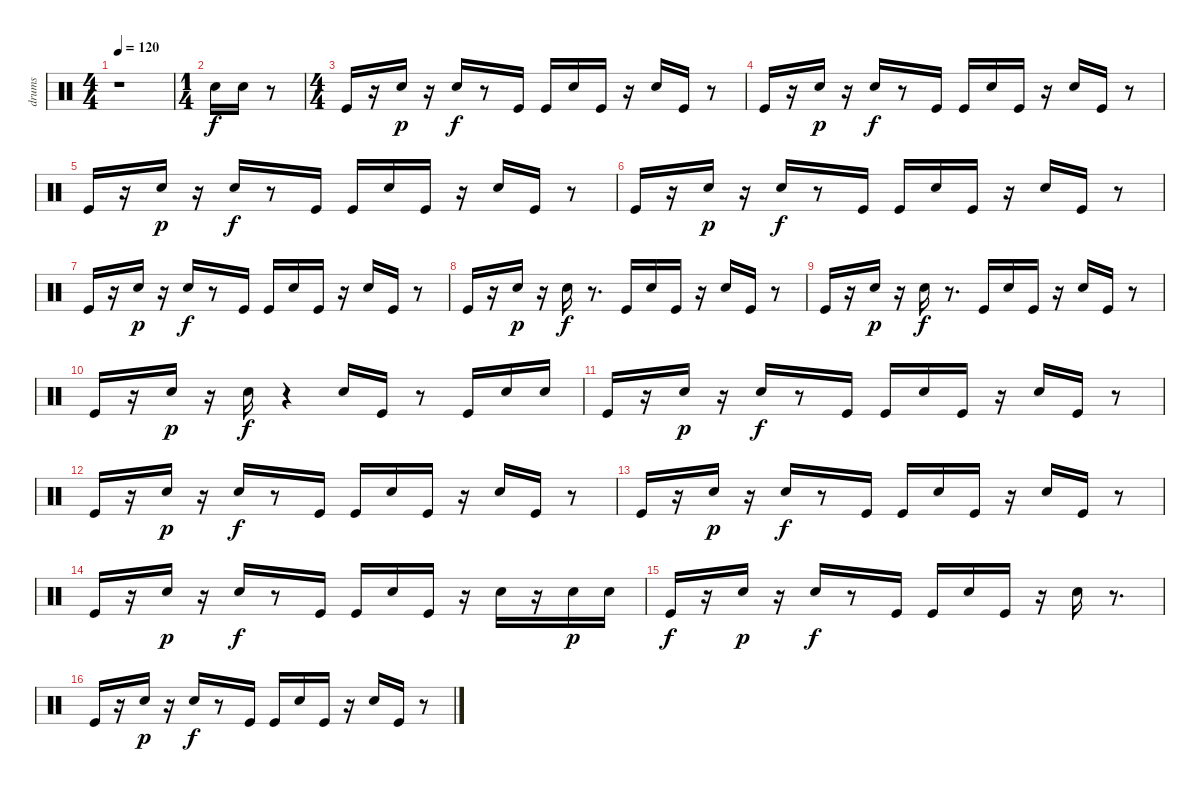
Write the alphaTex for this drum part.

\track ("drums" "drums") {instrument percussion}
\staff {score}
\articulation defaults
\ts (4 4)
\tempo 120
\clef neutral
\ks c
r.1{dy f} |
\ts (1 4)
"Electric Snare (hit)".16 "Electric Snare (hit)".16 r.8 |
\ts (4 4)
"Kick (hit)".16 r.16 "Electric Snare (hit)".16{dy p} r.16 "Electric Snare (hit)".16{dy f} r.8 "Kick (hit)".16 "Kick (hit)".16 "Electric Snare (hit)".16 "Kick (hit)".16 r.16 "Electric Snare (hit)".16 "Kick (hit)".16 r.8 |
"Kick (hit)".16 r.16 "Electric Snare (hit)".16{dy p} r.16 "Electric Snare (hit)".16{dy f} r.8 "Kick (hit)".16 "Kick (hit)".16 "Electric Snare (hit)".16 "Kick (hit)".16 r.16 "Electric Snare (hit)".16 "Kick (hit)".16 r.8 |
"Kick (hit)".16 r.16 "Electric Snare (hit)".16{dy p} r.16 "Electric Snare (hit)".16{dy f} r.8 "Kick (hit)".16 "Kick (hit)".16 "Electric Snare (hit)".16 "Kick (hit)".16 r.16 "Electric Snare (hit)".16 "Kick (hit)".16 r.8 |
"Kick (hit)".16 r.16 "Electric Snare (hit)".16{dy p} r.16 "Electric Snare (hit)".16{dy f} r.8 "Kick (hit)".16 "Kick (hit)".16 "Electric Snare (hit)".16 "Kick (hit)".16 r.16 "Electric Snare (hit)".16 "Kick (hit)".16 r.8 |
"Kick (hit)".16 r.16 "Electric Snare (hit)".16{dy p} r.16 "Electric Snare (hit)".16{dy f} r.8 "Kick (hit)".16 "Kick (hit)".16 "Electric Snare (hit)".16 "Kick (hit)".16 r.16 "Electric Snare (hit)".16 "Kick (hit)".16 r.8 |
"Kick (hit)".16 r.16 "Electric Snare (hit)".16{dy p} r.16 "Electric Snare (hit)".16{dy f} r.8{d} "Kick (hit)".16 "Electric Snare (hit)".16 "Kick (hit)".16 r.16 "Electric Snare (hit)".16 "Kick (hit)".16 r.8 |
"Kick (hit)".16 r.16 "Electric Snare (hit)".16{dy p} r.16 "Electric Snare (hit)".16{dy f} r.8{d} "Kick (hit)".16 "Electric Snare (hit)".16 "Kick (hit)".16 r.16 "Electric Snare (hit)".16 "Kick (hit)".16 r.8 |
"Kick (hit)".16 r.16 "Electric Snare (hit)".16{dy p} r.16 "Electric Snare (hit)".16{dy f} r.4 "Electric Snare (hit)".16 "Kick (hit)".16 r.8 "Kick (hit)".16 "Electric Snare (hit)".16 "Electric Snare (hit)".16 |
"Kick (hit)".16 r.16 "Electric Snare (hit)".16{dy p} r.16 "Electric Snare (hit)".16{dy f} r.8 "Kick (hit)".16 "Kick (hit)".16 "Electric Snare (hit)".16 "Kick (hit)".16 r.16 "Electric Snare (hit)".16 "Kick (hit)".16 r.8 |
"Kick (hit)".16 r.16 "Electric Snare (hit)".16{dy p} r.16 "Electric Snare (hit)".16{dy f} r.8 "Kick (hit)".16 "Kick (hit)".16 "Electric Snare (hit)".16 "Kick (hit)".16 r.16 "Electric Snare (hit)".16 "Kick (hit)".16 r.8 |
"Kick (hit)".16 r.16 "Electric Snare (hit)".16{dy p} r.16 "Electric Snare (hit)".16{dy f} r.8 "Kick (hit)".16 "Kick (hit)".16 "Electric Snare (hit)".16 "Kick (hit)".16 r.16 "Electric Snare (hit)".16 "Kick (hit)".16 r.8 |
"Kick (hit)".16 r.16 "Electric Snare (hit)".16{dy p} r.16 "Electric Snare (hit)".16{dy f} r.8 "Kick (hit)".16 "Kick (hit)".16 "Electric Snare (hit)".16 "Kick (hit)".16 r.16 "Electric Snare (hit)".16 r.16 "Electric Snare (hit)".16{dy p} "Electric Snare (hit)".16 |
"Kick (hit)".16{dy f} r.16 "Electric Snare (hit)".16{dy p} r.16 "Electric Snare (hit)".16{dy f} r.8 "Kick (hit)".16 "Kick (hit)".16 "Electric Snare (hit)".16 "Kick (hit)".16 r.16 "Electric Snare (hit)".16 r.8{d} |
"Kick (hit)".16 r.16 "Electric Snare (hit)".16{dy p} r.16 "Electric Snare (hit)".16{dy f} r.8 "Kick (hit)".16 "Kick (hit)".16 "Electric Snare (hit)".16 "Kick (hit)".16 r.16 "Electric Snare (hit)".16 "Kick (hit)".16 r.8
